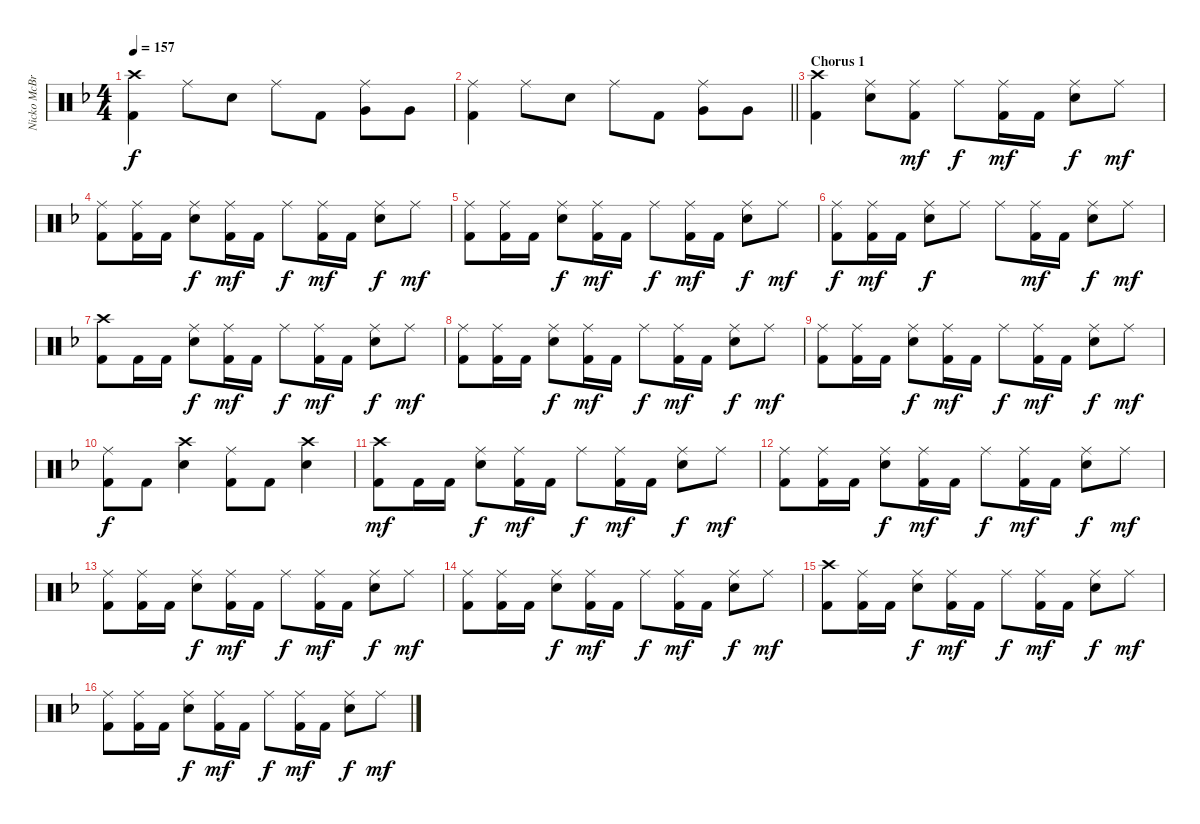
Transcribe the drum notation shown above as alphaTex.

\track ("Nicko McBrain" "Nicko McBr") {instrument percussion}
\staff {score}
\articulation defaults
\ts (4 4)
\tempo 157
\clef neutral
\ks f
("Crash high (hit)" "Kick (hit) 2").4{dy f} "Ride (middle)".8 "Electric Snare (hit)".8 "Ride (middle)".8 "Kick (hit) 2".8 ("Ride (middle)" "Very Low Tom (hit)").8 "Very Low Tom (hit)".8 |
\barLineRight lightlight
("Ride (middle)" "Kick (hit) 2").4 "Ride (middle)".8 "Electric Snare (hit)".8 "Ride (middle)".8 "Kick (hit) 2".8 ("Ride (middle)" "Very Low Tom (hit)").8 "Very Low Tom (hit)".8 |
\section ("" "Chorus 1")
("Crash high (hit)" "Kick (hit) 2").4 ("Ride (middle)" "Electric Snare (hit)").8 ("Ride (middle)" "Kick (hit) 2").8{dy mf} "Ride (middle)".8{dy f} ("Ride (middle)" "Kick (hit) 2").16{dy mf} "Kick (hit) 2".16 ("Ride (middle)" "Electric Snare (hit)").8{dy f} "Ride (middle)".8{dy mf} |
("Ride (middle)" "Kick (hit) 2").8 ("Ride (middle)" "Kick (hit) 2").16 "Kick (hit) 2".16 ("Ride (middle)" "Electric Snare (hit)").8{dy f} ("Ride (middle)" "Kick (hit) 2").16{dy mf} "Kick (hit) 2".16 "Ride (middle)".8{dy f} ("Ride (middle)" "Kick (hit) 2").16{dy mf} "Kick (hit) 2".16 ("Ride (middle)" "Electric Snare (hit)").8{dy f} "Ride (middle)".8{dy mf} |
("Ride (middle)" "Kick (hit) 2").8 ("Ride (middle)" "Kick (hit) 2").16 "Kick (hit) 2".16 ("Ride (middle)" "Electric Snare (hit)").8{dy f} ("Ride (middle)" "Kick (hit) 2").16{dy mf} "Kick (hit) 2".16 "Ride (middle)".8{dy f} ("Ride (middle)" "Kick (hit) 2").16{dy mf} "Kick (hit) 2".16 ("Ride (middle)" "Electric Snare (hit)").8{dy f} "Ride (middle)".8{dy mf} |
("Ride (middle)" "Kick (hit) 2").8{dy f} ("Ride (middle)" "Kick (hit) 2").16{dy mf} "Kick (hit) 2".16 ("Ride (middle)" "Electric Snare (hit)").8{dy f} "Ride (middle)".8 "Ride (middle)".8 ("Ride (middle)" "Kick (hit) 2").16{dy mf} "Kick (hit) 2".16 ("Ride (middle)" "Electric Snare (hit)").8{dy f} "Ride (middle)".8{dy mf} |
("Crash high (hit)" "Kick (hit) 2").8 "Kick (hit) 2".16 "Kick (hit) 2".16 ("Ride (middle)" "Electric Snare (hit)").8{dy f} ("Ride (middle)" "Kick (hit) 2").16{dy mf} "Kick (hit) 2".16 "Ride (middle)".8{dy f} ("Ride (middle)" "Kick (hit) 2").16{dy mf} "Kick (hit) 2".16 ("Ride (middle)" "Electric Snare (hit)").8{dy f} "Ride (middle)".8{dy mf} |
("Ride (middle)" "Kick (hit) 2").8 ("Ride (middle)" "Kick (hit) 2").16 "Kick (hit) 2".16 ("Ride (middle)" "Electric Snare (hit)").8{dy f} ("Ride (middle)" "Kick (hit) 2").16{dy mf} "Kick (hit) 2".16 "Ride (middle)".8{dy f} ("Ride (middle)" "Kick (hit) 2").16{dy mf} "Kick (hit) 2".16 ("Ride (middle)" "Electric Snare (hit)").8{dy f} "Ride (middle)".8{dy mf} |
("Ride (middle)" "Kick (hit) 2").8 ("Ride (middle)" "Kick (hit) 2").16 "Kick (hit) 2".16 ("Ride (middle)" "Electric Snare (hit)").8{dy f} ("Ride (middle)" "Kick (hit) 2").16{dy mf} "Kick (hit) 2".16 "Ride (middle)".8{dy f} ("Ride (middle)" "Kick (hit) 2").16{dy mf} "Kick (hit) 2".16 ("Ride (middle)" "Electric Snare (hit)").8{dy f} "Ride (middle)".8{dy mf} |
("Ride (middle)" "Kick (hit) 2").8{dy f} "Kick (hit) 2".8 ("Crash high (hit)" "Electric Snare (hit)").4 ("Ride (middle)" "Kick (hit) 2").8 "Kick (hit) 2".8 ("Crash high (hit)" "Electric Snare (hit)").4 |
("Crash high (hit)" "Kick (hit) 2").8{dy mf} "Kick (hit) 2".16 "Kick (hit) 2".16 ("Ride (middle)" "Electric Snare (hit)").8{dy f} ("Ride (middle)" "Kick (hit) 2").16{dy mf} "Kick (hit) 2".16 "Ride (middle)".8{dy f} ("Ride (middle)" "Kick (hit) 2").16{dy mf} "Kick (hit) 2".16 ("Ride (middle)" "Electric Snare (hit)").8{dy f} "Ride (middle)".8{dy mf} |
("Ride (middle)" "Kick (hit) 2").8 ("Ride (middle)" "Kick (hit) 2").16 "Kick (hit) 2".16 ("Ride (middle)" "Electric Snare (hit)").8{dy f} ("Ride (middle)" "Kick (hit) 2").16{dy mf} "Kick (hit) 2".16 "Ride (middle)".8{dy f} ("Ride (middle)" "Kick (hit) 2").16{dy mf} "Kick (hit) 2".16 ("Ride (middle)" "Electric Snare (hit)").8{dy f} "Ride (middle)".8{dy mf} |
("Ride (middle)" "Kick (hit) 2").8 ("Ride (middle)" "Kick (hit) 2").16 "Kick (hit) 2".16 ("Ride (middle)" "Electric Snare (hit)").8{dy f} ("Ride (middle)" "Kick (hit) 2").16{dy mf} "Kick (hit) 2".16 "Ride (middle)".8{dy f} ("Ride (middle)" "Kick (hit) 2").16{dy mf} "Kick (hit) 2".16 ("Ride (middle)" "Electric Snare (hit)").8{dy f} "Ride (middle)".8{dy mf} |
("Ride (middle)" "Kick (hit) 2").8 ("Ride (middle)" "Kick (hit) 2").16 "Kick (hit) 2".16 ("Ride (middle)" "Electric Snare (hit)").8{dy f} ("Ride (middle)" "Kick (hit) 2").16{dy mf} "Kick (hit) 2".16 "Ride (middle)".8{dy f} ("Ride (middle)" "Kick (hit) 2").16{dy mf} "Kick (hit) 2".16 ("Ride (middle)" "Electric Snare (hit)").8{dy f} "Ride (middle)".8{dy mf} |
("Crash high (hit)" "Kick (hit) 2").8 ("Ride (middle)" "Kick (hit) 2").16 "Kick (hit) 2".16 ("Ride (middle)" "Electric Snare (hit)").8{dy f} ("Ride (middle)" "Kick (hit) 2").16{dy mf} "Kick (hit) 2".16 "Ride (middle)".8{dy f} ("Ride (middle)" "Kick (hit) 2").16{dy mf} "Kick (hit) 2".16 ("Ride (middle)" "Electric Snare (hit)").8{dy f} "Ride (middle)".8{dy mf} |
("Ride (middle)" "Kick (hit) 2").8 ("Ride (middle)" "Kick (hit) 2").16 "Kick (hit) 2".16 ("Ride (middle)" "Electric Snare (hit)").8{dy f} ("Ride (middle)" "Kick (hit) 2").16{dy mf} "Kick (hit) 2".16 "Ride (middle)".8{dy f} ("Ride (middle)" "Kick (hit) 2").16{dy mf} "Kick (hit) 2".16 ("Ride (middle)" "Electric Snare (hit)").8{dy f} "Ride (middle)".8{dy mf}
